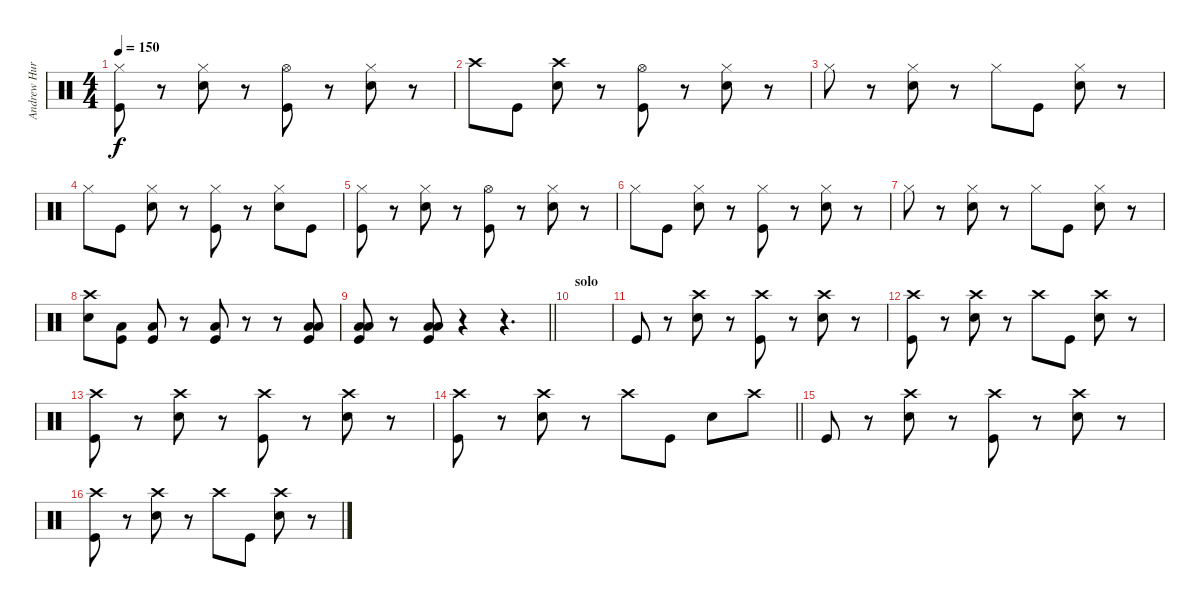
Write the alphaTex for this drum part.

\track ("Andrew Hurley (Drums)" "Andrew Hur") {instrument percussion}
\staff {score}
\articulation defaults
\ts (4 4)
\tempo 150
\clef neutral
\ks c
("Hi-Hat (closed)" "Kick (hit)").8{dy f} r.8 ("Hi-Hat (closed)" "Snare (hit) 2").8 r.8 ("Hi-Hat (open)" "Kick (hit)").8 r.8 ("Hi-Hat (closed)" "Snare (hit) 2").8 r.8 |
"Crash high (hit)".8 "Kick (hit)".8 ("Crash high (hit)" "Snare (hit) 2").8 r.8 ("Hi-Hat (open)" "Kick (hit)").8 r.8 ("Hi-Hat (closed)" "Snare (hit) 2").8 r.8 |
"Hi-Hat (closed)".8 r.8 ("Hi-Hat (closed)" "Snare (hit) 2").8 r.8 "Hi-Hat (closed)".8 "Kick (hit)".8 ("Hi-Hat (closed)" "Snare (hit) 2").8 r.8 |
"Hi-Hat (closed)".8 "Kick (hit)".8 ("Hi-Hat (closed)" "Snare (hit) 2").8 r.8 ("Hi-Hat (closed)" "Kick (hit)").8 r.8 ("Hi-Hat (closed)" "Snare (hit) 2").8 "Kick (hit)".8 |
("Hi-Hat (closed)" "Kick (hit)").8 r.8 ("Hi-Hat (closed)" "Snare (hit) 2").8 r.8 ("Hi-Hat (open)" "Kick (hit)").8 r.8 ("Hi-Hat (closed)" "Snare (hit) 2").8 r.8 |
"Hi-Hat (closed)".8 "Kick (hit)".8 ("Hi-Hat (closed)" "Snare (hit) 2").8 r.8 ("Hi-Hat (closed)" "Kick (hit)").8 r.8 ("Hi-Hat (closed)" "Snare (hit) 2").8 r.8 |
"Hi-Hat (closed)".8 r.8 ("Hi-Hat (closed)" "Snare (hit) 2").8 r.8 "Hi-Hat (closed)".8 "Kick (hit)".8 ("Hi-Hat (closed)" "Snare (hit) 2").8 r.8 |
("Crash high (hit)" "Snare (hit) 2").8 ("Low Floor Tom (hit)" "Kick (hit)").8 ("Low Floor Tom (hit)" "Kick (hit)").8 r.8 ("Low Floor Tom (hit)" "Kick (hit)").8 r.8 r.8 ("Low Tom (hit)" "Low Floor Tom (hit)" "Kick (hit)").8 |
\barLineRight lightlight
("Low Tom (hit)" "Low Floor Tom (hit)" "Kick (hit)").8 r.8 ("Low Tom (hit)" "Low Floor Tom (hit)" "Kick (hit)").8 r.4 r.4{d} |
\section ("" "solo")
|
"Kick (hit)".8 r.8 ("Crash high (hit)" "Snare (hit) 2").8 r.8 ("Crash high (hit)" "Kick (hit)").8 r.8 ("Crash high (hit)" "Snare (hit) 2").8 r.8 |
("Crash high (hit)" "Kick (hit)").8 r.8 ("Crash high (hit)" "Snare (hit) 2").8 r.8 "Crash high (hit)".8 "Kick (hit)".8 ("Crash high (hit)" "Snare (hit) 2").8 r.8 |
("Crash high (hit)" "Kick (hit)").8 r.8 ("Crash high (hit)" "Snare (hit) 2").8 r.8 ("Crash high (hit)" "Kick (hit)").8 r.8 ("Crash high (hit)" "Snare (hit) 2").8 r.8 |
\barLineRight lightlight
("Crash high (hit)" "Kick (hit)").8 r.8 ("Crash high (hit)" "Snare (hit) 2").8 r.8 "Crash high (hit)".8 "Kick (hit)".8 "Snare (hit) 2".8 "Crash high (hit)".8 |
"Kick (hit)".8 r.8 ("Crash high (hit)" "Snare (hit) 2").8 r.8 ("Crash high (hit)" "Kick (hit)").8 r.8 ("Crash high (hit)" "Snare (hit) 2").8 r.8 |
("Crash high (hit)" "Kick (hit)").8 r.8 ("Crash high (hit)" "Snare (hit) 2").8 r.8 "Crash high (hit)".8 "Kick (hit)".8 ("Crash high (hit)" "Snare (hit) 2").8 r.8
